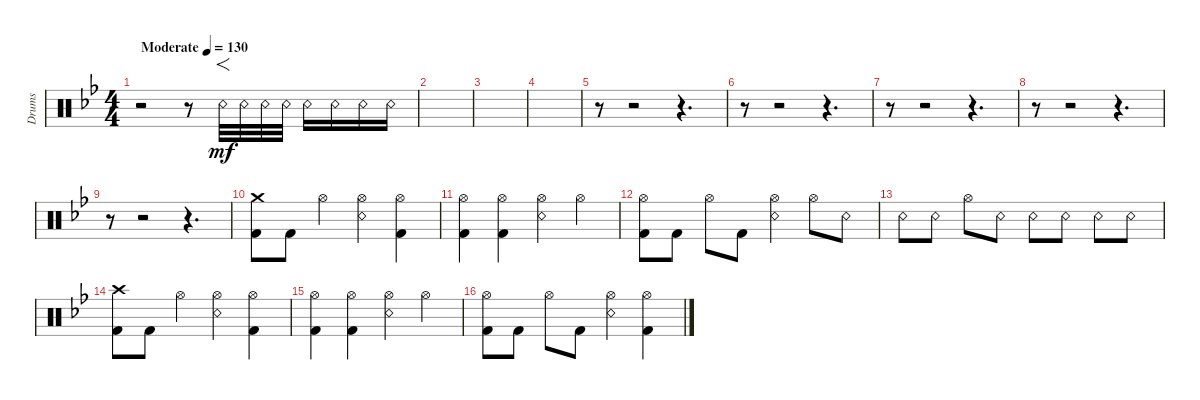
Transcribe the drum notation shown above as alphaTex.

\bracketExtendMode groupsimilarinstruments
\otherSystemsTrackNameOrientation horizontal
\track ("Schlagzeug" "Drums") {instrument percussion}
\staff {score}
\articulation defaults
\ts (4 4)
\beaming (8 2 2 2 2)
\tempo (130 "Moderate")
\clef neutral
\ks bb
r.2{dy mf beam Down} r.8{beam Down} "Snare (rim shot)"{acc forcenatural}.32{f beam Down} "Snare (rim shot)"{acc forcenatural}.32{beam Down} "Snare (rim shot)"{acc forcenatural}.32{beam Down} "Snare (rim shot)"{acc forcenatural}.32{beam Down} "Snare (rim shot)"{acc forcenatural}.16{beam Down} "Snare (rim shot)"{acc forcenatural}.16{beam Down} "Snare (rim shot)"{acc forcenatural}.16{beam Down} "Snare (rim shot)"{acc forcenatural}.16{beam Down} |
|
|
|
r.8{beam Down} r.2{beam Down} r.4{d beam Down} |
r.8{beam Down} r.2{beam Down} r.4{d beam Down} |
r.8{beam Down} r.2{beam Down} r.4{d beam Down} |
r.8{beam Down} r.2{beam Down} r.4{d beam Down} |
r.8{beam Down} r.2{beam Down} r.4{d beam Down} |
("Kick (hit) 2"{acc forcenatural} "Crash medium (hit)"{acc forcenatural}).8{beam Down} "Kick (hit) 2"{acc forcenatural}.8{beam Down} "Hi-Hat (open)"{acc forcenatural}.4{beam Down} ("Snare (rim shot)"{acc forcenatural} "Hi-Hat (open)"{acc forcenatural}).4{beam Down} ("Kick (hit) 2"{acc forcenatural} "Hi-Hat (open)"{acc forcenatural}).4{beam Down} |
("Kick (hit) 2"{acc forcenatural} "Hi-Hat (open)"{acc forcenatural}).4{beam Down} ("Kick (hit) 2"{acc forcenatural} "Hi-Hat (open)"{acc forcenatural}).4{beam Down} ("Snare (rim shot)"{acc forcenatural} "Hi-Hat (open)"{acc forcenatural}).4{beam Down} "Hi-Hat (open)"{acc forcenatural}.4{beam Down} |
("Kick (hit) 2"{acc forcenatural} "Hi-Hat (open)"{acc forcenatural}).8{beam Down} "Kick (hit) 2"{acc forcenatural}.8{beam Down} "Hi-Hat (open)"{acc forcenatural}.8{beam Down} "Kick (hit) 2"{acc forcenatural}.8{beam Down} ("Snare (rim shot)"{acc forcenatural} "Hi-Hat (open)"{acc forcenatural}).4{beam Down} "Hi-Hat (open)"{acc forcenatural}.8{beam Down} "Snare (rim shot)"{acc forcenatural}.8{beam Down} |
"Snare (rim shot)"{acc forcenatural}.8{beam Down} "Snare (rim shot)"{acc forcenatural}.8{beam Down} "Hi-Hat (open)"{acc forcenatural}.8{beam Down} "Snare (rim shot)"{acc forcenatural}.8{beam Down} "Snare (rim shot)"{acc forcenatural}.8{beam Down} "Snare (rim shot)"{acc forcenatural}.8{beam Down} "Snare (rim shot)"{acc forcenatural}.8{beam Down} "Snare (rim shot)"{acc forcenatural}.8{beam Down} |
("Kick (hit) 2"{acc forcenatural} "Crash high (hit)"{acc forcenatural}).8{beam Down} "Kick (hit) 2"{acc forcenatural}.8{beam Down} "Hi-Hat (open)"{acc forcenatural}.4{beam Down} ("Snare (rim shot)"{acc forcenatural} "Hi-Hat (open)"{acc forcenatural}).4{beam Down} ("Kick (hit) 2"{acc forcenatural} "Hi-Hat (open)"{acc forcenatural}).4{beam Down} |
("Kick (hit) 2"{acc forcenatural} "Hi-Hat (open)"{acc forcenatural}).4{beam Down} ("Kick (hit) 2"{acc forcenatural} "Hi-Hat (open)"{acc forcenatural}).4{beam Down} ("Snare (rim shot)"{acc forcenatural} "Hi-Hat (open)"{acc forcenatural}).4{beam Down} "Hi-Hat (open)"{acc forcenatural}.4{beam Down} |
("Kick (hit) 2"{acc forcenatural} "Hi-Hat (open)"{acc forcenatural}).8{beam Down} "Kick (hit) 2"{acc forcenatural}.8{beam Down} "Hi-Hat (open)"{acc forcenatural}.8{beam Down} "Kick (hit) 2"{acc forcenatural}.8{beam Down} ("Snare (rim shot)"{acc forcenatural} "Hi-Hat (open)"{acc forcenatural}).4{beam Down} ("Kick (hit) 2"{acc forcenatural} "Hi-Hat (open)"{acc forcenatural}).4{beam Down}
